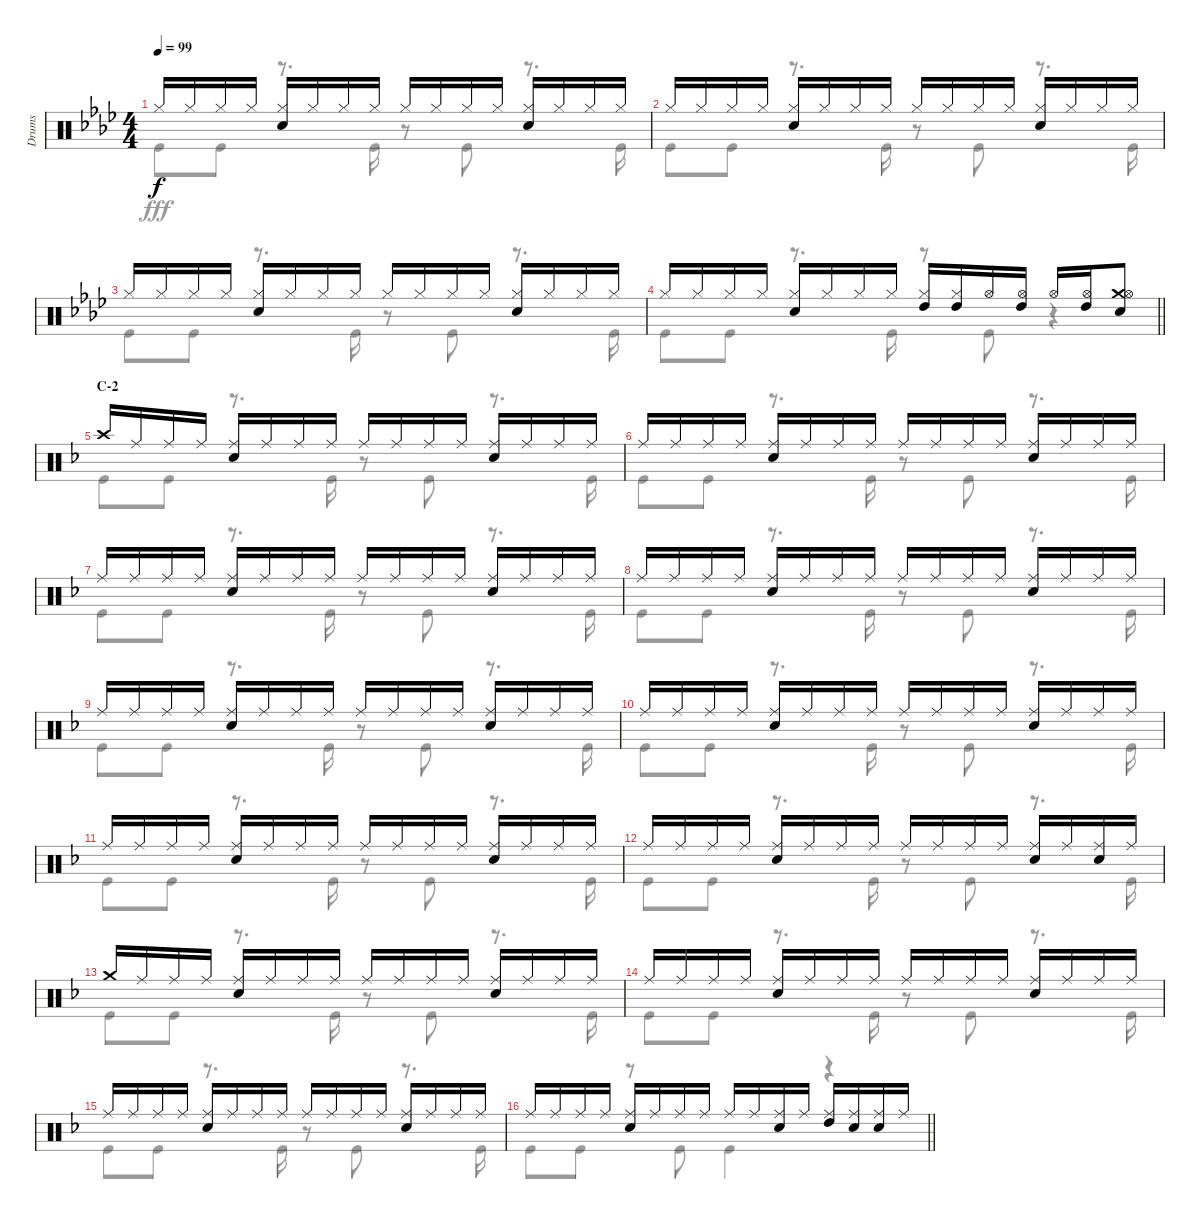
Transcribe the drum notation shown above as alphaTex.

\track ("Drums" "Drums") {instrument percussion}
\staff {score}
\articulation defaults
\voice
\ts (4 4)
\tempo 99
\clef neutral
\ks ab "Hi-Hat (closed)".16{dy f} "Hi-Hat (closed)".16 "Hi-Hat (closed)".16 "Hi-Hat (closed)".16
("Hi-Hat (closed)" "Snare (hit) 2").16 "Hi-Hat (closed)".16 "Hi-Hat (closed)".16 "Hi-Hat (closed)".16 "Hi-Hat (closed)".16 "Hi-Hat (closed)".16 "Hi-Hat (closed)".16 "Hi-Hat (closed)".16 ("Hi-Hat (closed)" "Snare (hit) 2").16 "Hi-Hat (closed)".16 "Hi-Hat (closed)".16 "Hi-Hat (closed)".16 |
"Hi-Hat (closed)".16 "Hi-Hat (closed)".16 "Hi-Hat (closed)".16 "Hi-Hat (closed)".16 ("Hi-Hat (closed)" "Snare (hit) 2").16 "Hi-Hat (closed)".16 "Hi-Hat (closed)".16 "Hi-Hat (closed)".16 "Hi-Hat (closed)".16 "Hi-Hat (closed)".16 "Hi-Hat (closed)".16 "Hi-Hat (closed)".16 ("Hi-Hat (closed)" "Snare (hit) 2").16 "Hi-Hat (closed)".16 "Hi-Hat (closed)".16 "Hi-Hat (closed)".16 |
"Hi-Hat (closed)".16 "Hi-Hat (closed)".16 "Hi-Hat (closed)".16 "Hi-Hat (closed)".16 ("Hi-Hat (closed)" "Snare (hit) 2").16 "Hi-Hat (closed)".16 "Hi-Hat (closed)".16 "Hi-Hat (closed)".16 "Hi-Hat (closed)".16 "Hi-Hat (closed)".16 "Hi-Hat (closed)".16 "Hi-Hat (closed)".16 ("Hi-Hat (closed)" "Snare (hit) 2").16 "Hi-Hat (closed)".16 "Hi-Hat (closed)".16 "Hi-Hat (closed)".16 |
\barLineRight lightlight "Hi-Hat (closed)".16 "Hi-Hat (closed)".16 "Hi-Hat (closed)".16 "Hi-Hat (closed)".16
("Hi-Hat (closed)" "Snare (hit) 2").16 "Hi-Hat (closed)".16 "Hi-Hat (closed)".16 "Hi-Hat (closed)".16 ("Hi-Hat (closed)" "High Tom (hit)").16 ("Hi-Hat (closed)" "High Tom (hit)").16 "Hi-Hat (open)".16 ("Hi-Hat (open)" "High Tom (hit)").16 "Hi-Hat (open)".16 ("Hi-Hat (open)" "High Tom (hit)").16 ("Crash medium (hit)" "Hi-Hat (open)" "Snare (hit) 2").8 |
\section ("" "C-2")
\ks f "Crash high (hit)".16 "Ride (middle)".16 "Ride (middle)".16 "Ride (middle)".16
("Ride (middle)" "Snare (hit) 2").16 "Ride (middle)".16 "Ride (middle)".16 "Ride (middle)".16 "Ride (middle)".16 "Ride (middle)".16 "Ride (middle)".16 "Ride (middle)".16 ("Ride (middle)" "Snare (hit) 2").16 "Ride (middle)".16 "Ride (middle)".16 "Ride (middle)".16 |
"Ride (middle)".16 "Ride (middle)".16 "Ride (middle)".16 "Ride (middle)".16 ("Ride (middle)" "Snare (hit) 2").16 "Ride (middle)".16 "Ride (middle)".16 "Ride (middle)".16 "Ride (middle)".16 "Ride (middle)".16 "Ride (middle)".16 "Ride (middle)".16 ("Ride (middle)" "Snare (hit) 2").16 "Ride (middle)".16 "Ride (middle)".16 "Ride (middle)".16 |
"Ride (middle)".16 "Ride (middle)".16 "Ride (middle)".16 "Ride (middle)".16 ("Ride (middle)" "Snare (hit) 2").16 "Ride (middle)".16 "Ride (middle)".16 "Ride (middle)".16 "Ride (middle)".16 "Ride (middle)".16 "Ride (middle)".16 "Ride (middle)".16 ("Ride (middle)" "Snare (hit) 2").16 "Ride (middle)".16 "Ride (middle)".16 "Ride (middle)".16 |
"Ride (middle)".16 "Ride (middle)".16 "Ride (middle)".16 "Ride (middle)".16 ("Ride (middle)" "Snare (hit) 2").16 "Ride (middle)".16 "Ride (middle)".16 "Ride (middle)".16 "Ride (middle)".16 "Ride (middle)".16 "Ride (middle)".16 "Ride (middle)".16 ("Ride (middle)" "Snare (hit) 2").16 "Ride (middle)".16 "Ride (middle)".16 "Ride (middle)".16 |
"Ride (middle)".16 "Ride (middle)".16 "Ride (middle)".16 "Ride (middle)".16 ("Ride (middle)" "Snare (hit) 2").16 "Ride (middle)".16 "Ride (middle)".16 "Ride (middle)".16 "Ride (middle)".16 "Ride (middle)".16 "Ride (middle)".16 "Ride (middle)".16 ("Ride (middle)" "Snare (hit) 2").16 "Ride (middle)".16 "Ride (middle)".16 "Ride (middle)".16 |
"Ride (middle)".16 "Ride (middle)".16 "Ride (middle)".16 "Ride (middle)".16 ("Ride (middle)" "Snare (hit) 2").16 "Ride (middle)".16 "Ride (middle)".16 "Ride (middle)".16 "Ride (middle)".16 "Ride (middle)".16 "Ride (middle)".16 "Ride (middle)".16 ("Ride (middle)" "Snare (hit) 2").16 "Ride (middle)".16 "Ride (middle)".16 "Ride (middle)".16 |
"Ride (middle)".16 "Ride (middle)".16 "Ride (middle)".16 "Ride (middle)".16 ("Ride (middle)" "Snare (hit) 2").16 "Ride (middle)".16 "Ride (middle)".16 "Ride (middle)".16 "Ride (middle)".16 "Ride (middle)".16 "Ride (middle)".16 "Ride (middle)".16 ("Ride (middle)" "Snare (hit) 2").16 "Ride (middle)".16 "Ride (middle)".16 "Ride (middle)".16 |
"Ride (middle)".16 "Ride (middle)".16 "Ride (middle)".16 "Ride (middle)".16 ("Ride (middle)" "Snare (hit) 2").16 "Ride (middle)".16 "Ride (middle)".16 "Ride (middle)".16 "Ride (middle)".16 "Ride (middle)".16 "Ride (middle)".16 "Ride (middle)".16 ("Ride (middle)" "Snare (hit) 2").16 "Ride (middle)".16 ("Ride (middle)" "Snare (hit) 2").16 "Ride (middle)".16 |
"Crash medium (hit)".16 "Ride (middle)".16 "Ride (middle)".16 "Ride (middle)".16 ("Ride (middle)" "Snare (hit) 2").16 "Ride (middle)".16 "Ride (middle)".16 "Ride (middle)".16 "Ride (middle)".16 "Ride (middle)".16 "Ride (middle)".16 "Ride (middle)".16 ("Ride (middle)" "Snare (hit) 2").16 "Ride (middle)".16 "Ride (middle)".16 "Ride (middle)".16 |
"Ride (middle)".16 "Ride (middle)".16 "Ride (middle)".16 "Ride (middle)".16 ("Ride (middle)" "Snare (hit) 2").16 "Ride (middle)".16 "Ride (middle)".16 "Ride (middle)".16 "Ride (middle)".16 "Ride (middle)".16 "Ride (middle)".16 "Ride (middle)".16 ("Ride (middle)" "Snare (hit) 2").16 "Ride (middle)".16 "Ride (middle)".16 "Ride (middle)".16 |
"Ride (middle)".16 "Ride (middle)".16 "Ride (middle)".16 "Ride (middle)".16 ("Ride (middle)" "Snare (hit) 2").16 "Ride (middle)".16 "Ride (middle)".16 "Ride (middle)".16 "Ride (middle)".16 "Ride (middle)".16 "Ride (middle)".16 "Ride (middle)".16 ("Ride (middle)" "Snare (hit) 2").16 "Ride (middle)".16 "Ride (middle)".16 "Ride (middle)".16 |
\barLineRight lightlight "Ride (middle)".16 "Ride (middle)".16 "Ride (middle)".16 "Ride (middle)".16
("Ride (middle)" "Snare (hit) 2").16 "Ride (middle)".16 "Ride (middle)".16 "Ride (middle)".16 "Ride (middle)".16 "Ride (middle)".16 ("Ride (middle)" "Snare (hit) 2").16 "Ride (middle)".16 ("Ride (middle)" "High Tom (hit)").16 ("Ride (middle)" "Snare (hit) 2").16 ("Ride (middle)" "Snare (hit) 2").16 "Ride (middle)".16
\voice
\clef neutral
\ottava regular
\simile none
\ks ab "Kick (hit)".8{dy fff} "Kick (hit)".8
r.8{d} "Kick (hit)".16 r.8 "Kick (hit)".8 r.8{d} "Kick (hit)".16 |
"Kick (hit)".8 "Kick (hit)".8 r.8{d} "Kick (hit)".16 r.8 "Kick (hit)".8 r.8{d} "Kick (hit)".16 |
"Kick (hit)".8 "Kick (hit)".8 r.8{d} "Kick (hit)".16 r.8 "Kick (hit)".8 r.8{d} "Kick (hit)".16 |
\barLineRight lightlight "Kick (hit)".8 "Kick (hit)".8
r.8{d} "Kick (hit)".16 r.8 "Kick (hit)".8 r.4 |
\ks f "Kick (hit)".8 "Kick (hit)".8
r.8{d} "Kick (hit)".16 r.8 "Kick (hit)".8 r.8{d} "Kick (hit)".16 |
"Kick (hit)".8 "Kick (hit)".8 r.8{d} "Kick (hit)".16 r.8 "Kick (hit)".8 r.8{d} "Kick (hit)".16 |
"Kick (hit)".8 "Kick (hit)".8 r.8{d} "Kick (hit)".16 r.8 "Kick (hit)".8 r.8{d} "Kick (hit)".16 |
"Kick (hit)".8 "Kick (hit)".8 r.8{d} "Kick (hit)".16 r.8 "Kick (hit)".8 r.8{d} "Kick (hit)".16 |
"Kick (hit)".8 "Kick (hit)".8 r.8{d} "Kick (hit)".16 r.8 "Kick (hit)".8 r.8{d} "Kick (hit)".16 |
"Kick (hit)".8 "Kick (hit)".8 r.8{d} "Kick (hit)".16 r.8 "Kick (hit)".8 r.8{d} "Kick (hit)".16 |
"Kick (hit)".8 "Kick (hit)".8 r.8{d} "Kick (hit)".16 r.8 "Kick (hit)".8 r.8{d} "Kick (hit)".16 |
"Kick (hit)".8 "Kick (hit)".8 r.8{d} "Kick (hit)".16 r.8 "Kick (hit)".8 r.8{d} "Kick (hit)".16 |
"Kick (hit)".8 "Kick (hit)".8 r.8{d} "Kick (hit)".16 r.8 "Kick (hit)".8 r.8{d} "Kick (hit)".16 |
"Kick (hit)".8 "Kick (hit)".8 r.8{d} "Kick (hit)".16 r.8 "Kick (hit)".8 r.8{d} "Kick (hit)".16 |
"Kick (hit)".8 "Kick (hit)".8 r.8{d} "Kick (hit)".16 r.8 "Kick (hit)".8 r.8{d} "Kick (hit)".16 |
\barLineRight lightlight "Kick (hit)".8 "Kick (hit)".8
r.8 "Kick (hit)".8 "Kick (hit)".4 r.4
